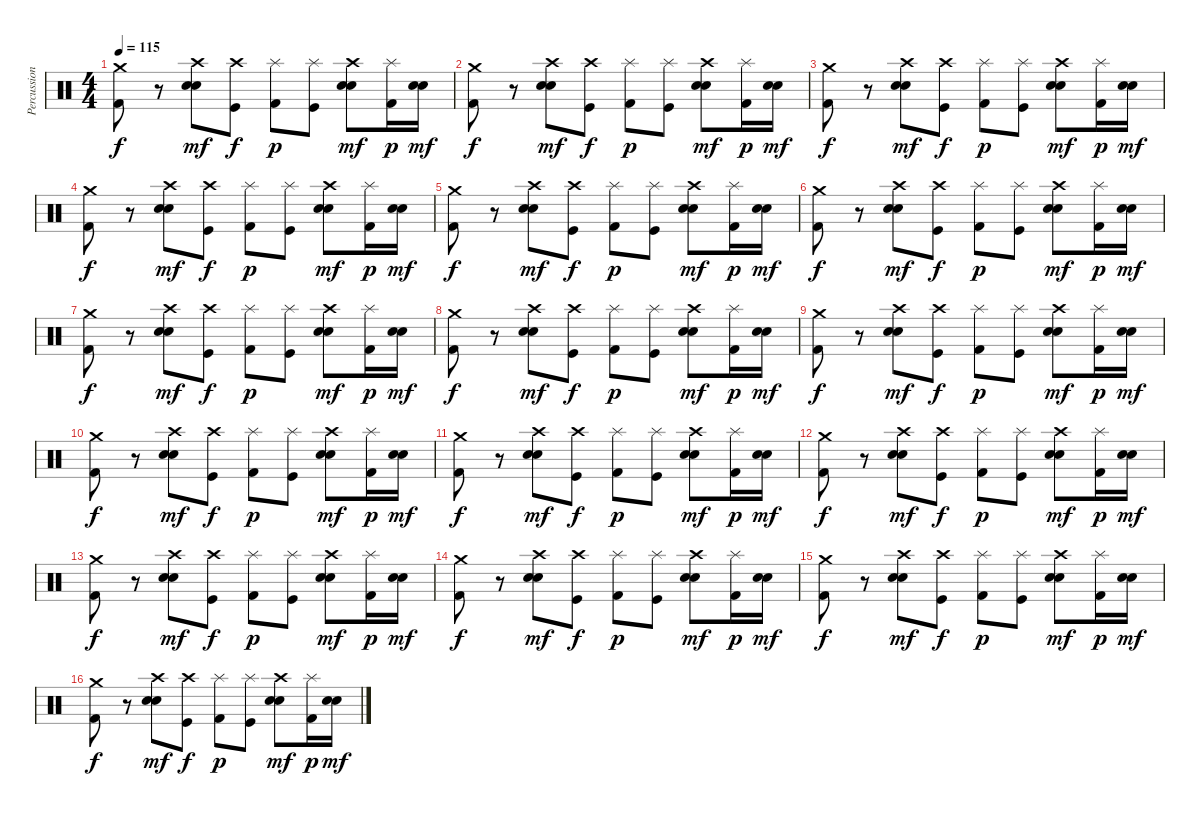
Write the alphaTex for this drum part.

\track ("Percussion - Drums" "Percussion") {instrument percussion}
\staff {score}
\articulation defaults
\ts (4 4)
\tempo 115
\clef neutral
\ks c
("Crash medium (hit)" "Kick (hit) 2").8{dy f} r.8 ("Crash high (hit)" "Electric Snare (hit)" "Snare (hit) 2").8{dy mf} ("Crash high (hit)" "Kick (hit)").8{dy f} ("Splash (hit)" "Kick (hit) 2").8{dy p} ("Splash (hit)" "Kick (hit)").8 ("Crash high (hit)" "Electric Snare (hit)" "Snare (hit) 2").8{dy mf} ("Splash (hit)" "Kick (hit) 2").16{dy p} ("Electric Snare (hit)" "Snare (hit) 2").16{dy mf} |
("Crash medium (hit)" "Kick (hit) 2").8{dy f} r.8 ("Crash high (hit)" "Electric Snare (hit)" "Snare (hit) 2").8{dy mf} ("Crash high (hit)" "Kick (hit)").8{dy f} ("Splash (hit)" "Kick (hit) 2").8{dy p} ("Splash (hit)" "Kick (hit)").8 ("Crash high (hit)" "Electric Snare (hit)" "Snare (hit) 2").8{dy mf} ("Splash (hit)" "Kick (hit) 2").16{dy p} ("Electric Snare (hit)" "Snare (hit) 2").16{dy mf} |
("Crash medium (hit)" "Kick (hit) 2").8{dy f} r.8 ("Crash high (hit)" "Electric Snare (hit)" "Snare (hit) 2").8{dy mf} ("Crash high (hit)" "Kick (hit)").8{dy f} ("Splash (hit)" "Kick (hit) 2").8{dy p} ("Splash (hit)" "Kick (hit)").8 ("Crash high (hit)" "Electric Snare (hit)" "Snare (hit) 2").8{dy mf} ("Splash (hit)" "Kick (hit) 2").16{dy p} ("Electric Snare (hit)" "Snare (hit) 2").16{dy mf} |
("Crash medium (hit)" "Kick (hit) 2").8{dy f} r.8 ("Crash high (hit)" "Electric Snare (hit)" "Snare (hit) 2").8{dy mf} ("Crash high (hit)" "Kick (hit)").8{dy f} ("Splash (hit)" "Kick (hit) 2").8{dy p} ("Splash (hit)" "Kick (hit)").8 ("Crash high (hit)" "Electric Snare (hit)" "Snare (hit) 2").8{dy mf} ("Splash (hit)" "Kick (hit) 2").16{dy p} ("Electric Snare (hit)" "Snare (hit) 2").16{dy mf} |
("Crash medium (hit)" "Kick (hit) 2").8{dy f} r.8 ("Crash high (hit)" "Electric Snare (hit)" "Snare (hit) 2").8{dy mf} ("Crash high (hit)" "Kick (hit)").8{dy f} ("Splash (hit)" "Kick (hit) 2").8{dy p} ("Splash (hit)" "Kick (hit)").8 ("Crash high (hit)" "Electric Snare (hit)" "Snare (hit) 2").8{dy mf} ("Splash (hit)" "Kick (hit) 2").16{dy p} ("Electric Snare (hit)" "Snare (hit) 2").16{dy mf} |
("Crash medium (hit)" "Kick (hit) 2").8{dy f} r.8 ("Crash high (hit)" "Electric Snare (hit)" "Snare (hit) 2").8{dy mf} ("Crash high (hit)" "Kick (hit)").8{dy f} ("Splash (hit)" "Kick (hit) 2").8{dy p} ("Splash (hit)" "Kick (hit)").8 ("Crash high (hit)" "Electric Snare (hit)" "Snare (hit) 2").8{dy mf} ("Splash (hit)" "Kick (hit) 2").16{dy p} ("Electric Snare (hit)" "Snare (hit) 2").16{dy mf} |
("Crash medium (hit)" "Kick (hit) 2").8{dy f} r.8 ("Crash high (hit)" "Electric Snare (hit)" "Snare (hit) 2").8{dy mf} ("Crash high (hit)" "Kick (hit)").8{dy f} ("Splash (hit)" "Kick (hit) 2").8{dy p} ("Splash (hit)" "Kick (hit)").8 ("Crash high (hit)" "Electric Snare (hit)" "Snare (hit) 2").8{dy mf} ("Splash (hit)" "Kick (hit) 2").16{dy p} ("Electric Snare (hit)" "Snare (hit) 2").16{dy mf} |
("Crash medium (hit)" "Kick (hit) 2").8{dy f} r.8 ("Crash high (hit)" "Electric Snare (hit)" "Snare (hit) 2").8{dy mf} ("Crash high (hit)" "Kick (hit)").8{dy f} ("Splash (hit)" "Kick (hit) 2").8{dy p} ("Splash (hit)" "Kick (hit)").8 ("Crash high (hit)" "Electric Snare (hit)" "Snare (hit) 2").8{dy mf} ("Splash (hit)" "Kick (hit) 2").16{dy p} ("Electric Snare (hit)" "Snare (hit) 2").16{dy mf} |
("Crash medium (hit)" "Kick (hit) 2").8{dy f} r.8 ("Crash high (hit)" "Electric Snare (hit)" "Snare (hit) 2").8{dy mf} ("Crash high (hit)" "Kick (hit)").8{dy f} ("Splash (hit)" "Kick (hit) 2").8{dy p} ("Splash (hit)" "Kick (hit)").8 ("Crash high (hit)" "Electric Snare (hit)" "Snare (hit) 2").8{dy mf} ("Splash (hit)" "Kick (hit) 2").16{dy p} ("Electric Snare (hit)" "Snare (hit) 2").16{dy mf} |
("Crash medium (hit)" "Kick (hit) 2").8{dy f} r.8 ("Crash high (hit)" "Electric Snare (hit)" "Snare (hit) 2").8{dy mf} ("Crash high (hit)" "Kick (hit)").8{dy f} ("Splash (hit)" "Kick (hit) 2").8{dy p} ("Splash (hit)" "Kick (hit)").8 ("Crash high (hit)" "Electric Snare (hit)" "Snare (hit) 2").8{dy mf} ("Splash (hit)" "Kick (hit) 2").16{dy p} ("Electric Snare (hit)" "Snare (hit) 2").16{dy mf} |
("Crash medium (hit)" "Kick (hit) 2").8{dy f} r.8 ("Crash high (hit)" "Electric Snare (hit)" "Snare (hit) 2").8{dy mf} ("Crash high (hit)" "Kick (hit)").8{dy f} ("Splash (hit)" "Kick (hit) 2").8{dy p} ("Splash (hit)" "Kick (hit)").8 ("Crash high (hit)" "Electric Snare (hit)" "Snare (hit) 2").8{dy mf} ("Splash (hit)" "Kick (hit) 2").16{dy p} ("Electric Snare (hit)" "Snare (hit) 2").16{dy mf} |
("Crash medium (hit)" "Kick (hit) 2").8{dy f} r.8 ("Crash high (hit)" "Electric Snare (hit)" "Snare (hit) 2").8{dy mf} ("Crash high (hit)" "Kick (hit)").8{dy f} ("Splash (hit)" "Kick (hit) 2").8{dy p} ("Splash (hit)" "Kick (hit)").8 ("Crash high (hit)" "Electric Snare (hit)" "Snare (hit) 2").8{dy mf} ("Splash (hit)" "Kick (hit) 2").16{dy p} ("Electric Snare (hit)" "Snare (hit) 2").16{dy mf} |
("Crash medium (hit)" "Kick (hit) 2").8{dy f} r.8 ("Crash high (hit)" "Electric Snare (hit)" "Snare (hit) 2").8{dy mf} ("Crash high (hit)" "Kick (hit)").8{dy f} ("Splash (hit)" "Kick (hit) 2").8{dy p} ("Splash (hit)" "Kick (hit)").8 ("Crash high (hit)" "Electric Snare (hit)" "Snare (hit) 2").8{dy mf} ("Splash (hit)" "Kick (hit) 2").16{dy p} ("Electric Snare (hit)" "Snare (hit) 2").16{dy mf} |
("Crash medium (hit)" "Kick (hit) 2").8{dy f} r.8 ("Crash high (hit)" "Electric Snare (hit)" "Snare (hit) 2").8{dy mf} ("Crash high (hit)" "Kick (hit)").8{dy f} ("Splash (hit)" "Kick (hit) 2").8{dy p} ("Splash (hit)" "Kick (hit)").8 ("Crash high (hit)" "Electric Snare (hit)" "Snare (hit) 2").8{dy mf} ("Splash (hit)" "Kick (hit) 2").16{dy p} ("Electric Snare (hit)" "Snare (hit) 2").16{dy mf} |
("Crash medium (hit)" "Kick (hit) 2").8{dy f} r.8 ("Crash high (hit)" "Electric Snare (hit)" "Snare (hit) 2").8{dy mf} ("Crash high (hit)" "Kick (hit)").8{dy f} ("Splash (hit)" "Kick (hit) 2").8{dy p} ("Splash (hit)" "Kick (hit)").8 ("Crash high (hit)" "Electric Snare (hit)" "Snare (hit) 2").8{dy mf} ("Splash (hit)" "Kick (hit) 2").16{dy p} ("Electric Snare (hit)" "Snare (hit) 2").16{dy mf} |
("Crash medium (hit)" "Kick (hit) 2").8{dy f} r.8 ("Crash high (hit)" "Electric Snare (hit)" "Snare (hit) 2").8{dy mf} ("Crash high (hit)" "Kick (hit)").8{dy f} ("Splash (hit)" "Kick (hit) 2").8{dy p} ("Splash (hit)" "Kick (hit)").8 ("Crash high (hit)" "Electric Snare (hit)" "Snare (hit) 2").8{dy mf} ("Splash (hit)" "Kick (hit) 2").16{dy p} ("Electric Snare (hit)" "Snare (hit) 2").16{dy mf}
